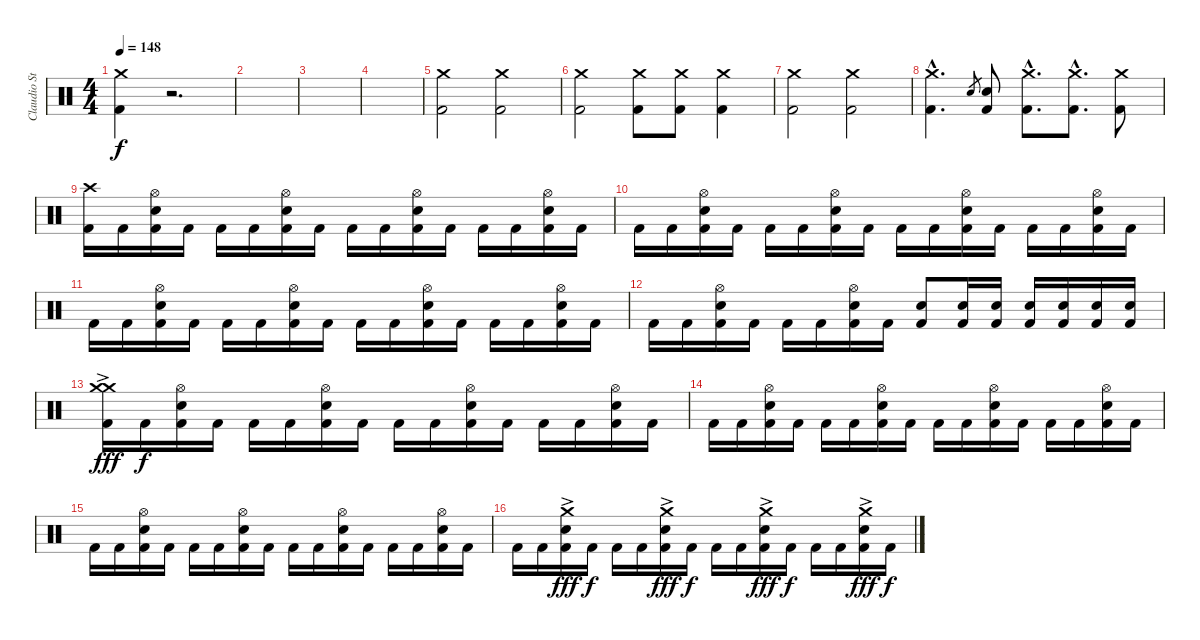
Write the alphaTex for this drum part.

\track ("Claudio Strunz" "Claudio St") {instrument percussion}
\staff {score}
\articulation defaults
\ts (4 4)
\tempo 148
\clef neutral
\ks c
("Crash medium (hit)" "Kick (hit) 2").4{dy f} r.2{d} |
|
|
|
("Crash medium (hit)" "Kick (hit) 2").2 ("Crash medium (hit)" "Kick (hit) 2").2 |
("Crash medium (hit)" "Kick (hit) 2").2 ("Crash medium (hit)" "Kick (hit) 2").8 ("Crash medium (hit)" "Kick (hit) 2").8 ("Crash medium (hit)" "Kick (hit) 2").4 |
("Crash medium (hit)" "Kick (hit) 2").2 ("Crash medium (hit)" "Kick (hit) 2").2 |
("Crash medium (hit)"{hac} "Kick (hit) 2"{hac}).4{d} "Electric Snare (hit)".8{gr} ("Electric Snare (hit)" "Kick (hit) 2").8 ("Crash medium (hit)"{hac} "Kick (hit) 2"{hac}).8{d} ("Crash medium (hit)"{hac} "Kick (hit) 2"{hac}).8{d} ("Crash medium (hit)" "Kick (hit) 2").8 |
("Crash high (hit)" "Kick (hit) 2").16 "Kick (hit) 2".16 ("Hi-Hat (open)" "Electric Snare (hit)" "Kick (hit) 2").16 "Kick (hit) 2".16 "Kick (hit) 2".16 "Kick (hit) 2".16 ("Hi-Hat (open)" "Electric Snare (hit)" "Kick (hit) 2").16 "Kick (hit) 2".16 "Kick (hit) 2".16 "Kick (hit) 2".16 ("Hi-Hat (open)" "Electric Snare (hit)" "Kick (hit) 2").16 "Kick (hit) 2".16 "Kick (hit) 2".16 "Kick (hit) 2".16 ("Hi-Hat (open)" "Electric Snare (hit)" "Kick (hit) 2").16 "Kick (hit) 2".16 |
"Kick (hit) 2".16 "Kick (hit) 2".16 ("Hi-Hat (open)" "Electric Snare (hit)" "Kick (hit) 2").16 "Kick (hit) 2".16 "Kick (hit) 2".16 "Kick (hit) 2".16 ("Hi-Hat (open)" "Electric Snare (hit)" "Kick (hit) 2").16 "Kick (hit) 2".16 "Kick (hit) 2".16 "Kick (hit) 2".16 ("Hi-Hat (open)" "Electric Snare (hit)" "Kick (hit) 2").16 "Kick (hit) 2".16 "Kick (hit) 2".16 "Kick (hit) 2".16 ("Hi-Hat (open)" "Electric Snare (hit)" "Kick (hit) 2").16 "Kick (hit) 2".16 |
"Kick (hit) 2".16 "Kick (hit) 2".16 ("Hi-Hat (open)" "Electric Snare (hit)" "Kick (hit) 2").16 "Kick (hit) 2".16 "Kick (hit) 2".16 "Kick (hit) 2".16 ("Hi-Hat (open)" "Electric Snare (hit)" "Kick (hit) 2").16 "Kick (hit) 2".16 "Kick (hit) 2".16 "Kick (hit) 2".16 ("Hi-Hat (open)" "Electric Snare (hit)" "Kick (hit) 2").16 "Kick (hit) 2".16 "Kick (hit) 2".16 "Kick (hit) 2".16 ("Hi-Hat (open)" "Electric Snare (hit)" "Kick (hit) 2").16 "Kick (hit) 2".16 |
"Kick (hit) 2".16 "Kick (hit) 2".16 ("Hi-Hat (open)" "Electric Snare (hit)" "Kick (hit) 2").16 "Kick (hit) 2".16 "Kick (hit) 2".16 "Kick (hit) 2".16 ("Hi-Hat (open)" "Electric Snare (hit)" "Kick (hit) 2").16 "Kick (hit) 2".16 ("Electric Snare (hit)" "Kick (hit) 2").8 ("Electric Snare (hit)" "Kick (hit) 2").16 ("Electric Snare (hit)" "Kick (hit) 2").16 ("Electric Snare (hit)" "Kick (hit) 2").16 ("Electric Snare (hit)" "Kick (hit) 2").16 ("Electric Snare (hit)" "Kick (hit) 2").16 ("Electric Snare (hit)" "Kick (hit) 2").16 |
("Crash medium (hit)"{ac} "Crash medium (hit)"{ac} "Kick (hit) 2").16{dy fff} "Kick (hit) 2".16{dy f} ("Hi-Hat (open)" "Electric Snare (hit)" "Kick (hit) 2").16 "Kick (hit) 2".16 "Kick (hit) 2".16 "Kick (hit) 2".16 ("Hi-Hat (open)" "Electric Snare (hit)" "Kick (hit) 2").16 "Kick (hit) 2".16 "Kick (hit) 2".16 "Kick (hit) 2".16 ("Hi-Hat (open)" "Electric Snare (hit)" "Kick (hit) 2").16 "Kick (hit) 2".16 "Kick (hit) 2".16 "Kick (hit) 2".16 ("Hi-Hat (open)" "Electric Snare (hit)" "Kick (hit) 2").16 "Kick (hit) 2".16 |
"Kick (hit) 2".16 "Kick (hit) 2".16 ("Hi-Hat (open)" "Electric Snare (hit)" "Kick (hit) 2").16 "Kick (hit) 2".16 "Kick (hit) 2".16 "Kick (hit) 2".16 ("Hi-Hat (open)" "Electric Snare (hit)" "Kick (hit) 2").16 "Kick (hit) 2".16 "Kick (hit) 2".16 "Kick (hit) 2".16 ("Hi-Hat (open)" "Electric Snare (hit)" "Kick (hit) 2").16 "Kick (hit) 2".16 "Kick (hit) 2".16 "Kick (hit) 2".16 ("Hi-Hat (open)" "Electric Snare (hit)" "Kick (hit) 2").16 "Kick (hit) 2".16 |
"Kick (hit) 2".16 "Kick (hit) 2".16 ("Hi-Hat (open)" "Electric Snare (hit)" "Kick (hit) 2").16 "Kick (hit) 2".16 "Kick (hit) 2".16 "Kick (hit) 2".16 ("Hi-Hat (open)" "Electric Snare (hit)" "Kick (hit) 2").16 "Kick (hit) 2".16 "Kick (hit) 2".16 "Kick (hit) 2".16 ("Hi-Hat (open)" "Electric Snare (hit)" "Kick (hit) 2").16 "Kick (hit) 2".16 "Kick (hit) 2".16 "Kick (hit) 2".16 ("Hi-Hat (open)" "Electric Snare (hit)" "Kick (hit) 2").16 "Kick (hit) 2".16 |
"Kick (hit) 2".16 "Kick (hit) 2".16 ("Crash medium (hit)"{ac} "Electric Snare (hit)" "Kick (hit) 2").16{dy fff} "Kick (hit) 2".16{dy f} "Kick (hit) 2".16 "Kick (hit) 2".16 ("Crash medium (hit)"{ac} "Electric Snare (hit)" "Kick (hit) 2").16{dy fff} "Kick (hit) 2".16{dy f} "Kick (hit) 2".16 "Kick (hit) 2".16 ("Crash medium (hit)"{ac} "Electric Snare (hit)" "Kick (hit) 2").16{dy fff} "Kick (hit) 2".16{dy f} "Kick (hit) 2".16 "Kick (hit) 2".16 ("Crash medium (hit)"{ac} "Electric Snare (hit)" "Kick (hit) 2").16{dy fff} "Kick (hit) 2".16{dy f}
